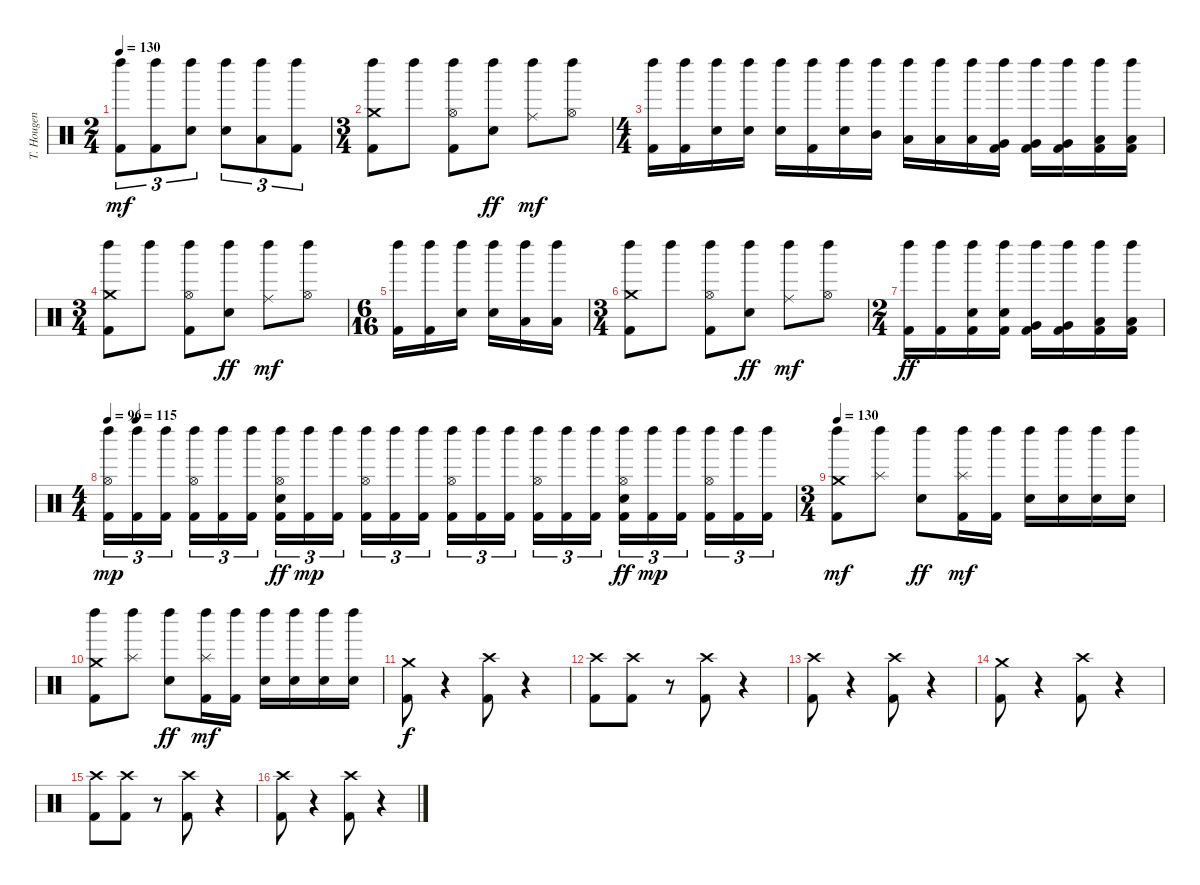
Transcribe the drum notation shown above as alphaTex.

\track ("T. Hougen - Drums" "T. Hougen ") {instrument percussion}
\staff {score}
\articulation defaults
\ts (2 4)
\tempo 130
\clef neutral
\ks c
("Left Maraca (hit)" "Kick (hit) 2").8{tu (3 2) dy mf} ("Left Maraca (hit)" "Kick (hit) 2").8{tu (3 2)} ("Left Maraca (hit)" "Electric Snare (hit)").8{tu (3 2)} ("Left Maraca (hit)" "Electric Snare (hit)").8{tu (3 2)} ("Left Maraca (hit)" "Low Tom (hit)").8{tu (3 2)} ("Left Maraca (hit)" "Kick (hit) 2").8{tu (3 2)} |
\ts (3 4)
("Left Maraca (hit)" "Crash medium (hit)" "Kick (hit) 2").8 "Left Maraca (hit)".8 ("Left Maraca (hit)" "Hi-Hat (open)" "Kick (hit) 2").8 ("Left Maraca (hit)" "Electric Snare (hit)").8{dy ff} ("Left Maraca (hit)" "Ride (middle)").8{dy mf} ("Left Maraca (hit)" "Hi-Hat (open)").8 |
\ts (4 4)
("Left Maraca (hit)" "Kick (hit) 2").16 ("Left Maraca (hit)" "Kick (hit) 2").16 ("Left Maraca (hit)" "Electric Snare (hit)").16 ("Left Maraca (hit)" "Electric Snare (hit)").16 ("Left Maraca (hit)" "Electric Snare (hit)").16 ("Left Maraca (hit)" "Kick (hit) 2").16 ("Left Maraca (hit)" "Electric Snare (hit)").16 ("Left Maraca (hit)" "Mid Tom (hit)").16 ("Left Maraca (hit)" "Low Tom (hit)").16 ("Left Maraca (hit)" "Low Tom (hit)").16 ("Left Maraca (hit)" "Low Tom (hit)").16 ("Left Maraca (hit)" "Very Low Tom (hit)" "Kick (hit) 2").16 ("Left Maraca (hit)" "Very Low Tom (hit)" "Kick (hit) 2").16 ("Left Maraca (hit)" "Very Low Tom (hit)" "Kick (hit) 2").16 ("Left Maraca (hit)" "Low Floor Tom (hit)" "Kick (hit) 2").16 ("Left Maraca (hit)" "Low Floor Tom (hit)" "Kick (hit) 2").16 |
\ts (3 4)
("Left Maraca (hit)" "Crash medium (hit)" "Kick (hit) 2").8 "Left Maraca (hit)".8 ("Left Maraca (hit)" "Hi-Hat (open)" "Kick (hit) 2").8 ("Left Maraca (hit)" "Electric Snare (hit)").8{dy ff} ("Left Maraca (hit)" "Ride (middle)").8{dy mf} ("Left Maraca (hit)" "Hi-Hat (open)").8 |
\ts (6 16)
("Left Maraca (hit)" "Kick (hit) 2").16 ("Left Maraca (hit)" "Kick (hit) 2").16 ("Left Maraca (hit)" "Electric Snare (hit)").16 ("Left Maraca (hit)" "Electric Snare (hit)").16 ("Left Maraca (hit)" "Low Tom (hit)").16 ("Left Maraca (hit)" "Low Tom (hit)").16 |
\ts (3 4)
("Left Maraca (hit)" "Crash medium (hit)" "Kick (hit) 2").8 "Left Maraca (hit)".8 ("Left Maraca (hit)" "Hi-Hat (open)" "Kick (hit) 2").8 ("Left Maraca (hit)" "Electric Snare (hit)").8{dy ff} ("Left Maraca (hit)" "Ride (middle)").8{dy mf} ("Left Maraca (hit)" "Hi-Hat (open)").8 |
\ts (2 4)
("Left Maraca (hit)" "Kick (hit) 2").16{dy ff} ("Left Maraca (hit)" "Kick (hit) 2").16 ("Left Maraca (hit)" "Electric Snare (hit)" "Kick (hit) 2").16 ("Left Maraca (hit)" "Electric Snare (hit)" "Kick (hit) 2").16 ("Left Maraca (hit)" "Very Low Tom (hit)" "Kick (hit) 2").16 ("Left Maraca (hit)" "Very Low Tom (hit)" "Kick (hit) 2").16 ("Left Maraca (hit)" "Low Floor Tom (hit)" "Kick (hit) 2").16 ("Left Maraca (hit)" "Low Floor Tom (hit)" "Kick (hit) 2").16 |
\ts (4 4)
\tempo 96
\tempo (115 0.041666666666666664)
("Left Maraca (hit)" "Hi-Hat (open)" "Kick (hit) 2").16{tu (3 2) dy mp} ("Left Maraca (hit)" "Kick (hit) 2").16{tu (3 2)} ("Left Maraca (hit)" "Kick (hit) 2").16{tu (3 2)} ("Left Maraca (hit)" "Hi-Hat (open)" "Kick (hit) 2").16{tu (3 2)} ("Left Maraca (hit)" "Kick (hit) 2").16{tu (3 2)} ("Left Maraca (hit)" "Kick (hit) 2").16{tu (3 2)} ("Left Maraca (hit)" "Hi-Hat (open)" "Electric Snare (hit)" "Kick (hit) 2").16{tu (3 2) dy ff} ("Left Maraca (hit)" "Kick (hit) 2").16{tu (3 2) dy mp} ("Left Maraca (hit)" "Kick (hit) 2").16{tu (3 2)} ("Left Maraca (hit)" "Hi-Hat (open)" "Kick (hit) 2").16{tu (3 2)} ("Left Maraca (hit)" "Kick (hit) 2").16{tu (3 2)} ("Left Maraca (hit)" "Kick (hit) 2").16{tu (3 2)} ("Left Maraca (hit)" "Hi-Hat (open)" "Kick (hit) 2").16{tu (3 2)} ("Left Maraca (hit)" "Kick (hit) 2").16{tu (3 2)} ("Left Maraca (hit)" "Kick (hit) 2").16{tu (3 2)} ("Left Maraca (hit)" "Hi-Hat (open)" "Kick (hit) 2").16{tu (3 2)} ("Left Maraca (hit)" "Kick (hit) 2").16{tu (3 2)} ("Left Maraca (hit)" "Kick (hit) 2").16{tu (3 2)} ("Left Maraca (hit)" "Hi-Hat (open)" "Electric Snare (hit)" "Kick (hit) 2").16{tu (3 2) dy ff} ("Left Maraca (hit)" "Kick (hit) 2").16{tu (3 2) dy mp} ("Left Maraca (hit)" "Kick (hit) 2").16{tu (3 2)} ("Left Maraca (hit)" "Hi-Hat (open)" "Kick (hit) 2").16{tu (3 2)} ("Left Maraca (hit)" "Kick (hit) 2").16{tu (3 2)} ("Left Maraca (hit)" "Kick (hit) 2").16{tu (3 2)} |
\ts (3 4)
\tempo 130
("Left Maraca (hit)" "Crash medium (hit)" "Kick (hit) 2").8{dy mf} ("Left Maraca (hit)" "Splash (hit)").8 ("Left Maraca (hit)" "Electric Snare (hit)").8{dy ff} ("Left Maraca (hit)" "Splash (hit)" "Kick (hit) 2").16{dy mf} ("Left Maraca (hit)" "Kick (hit) 2").16 ("Left Maraca (hit)" "Electric Snare (hit)").16 ("Left Maraca (hit)" "Electric Snare (hit)").16 ("Left Maraca (hit)" "Electric Snare (hit)").16 ("Left Maraca (hit)" "Electric Snare (hit)").16 |
("Left Maraca (hit)" "Crash medium (hit)" "Kick (hit) 2").8 ("Left Maraca (hit)" "Splash (hit)").8 ("Left Maraca (hit)" "Electric Snare (hit)").8{dy ff} ("Left Maraca (hit)" "Splash (hit)" "Kick (hit) 2").16{dy mf} ("Left Maraca (hit)" "Kick (hit) 2").16 ("Left Maraca (hit)" "Electric Snare (hit)").16 ("Left Maraca (hit)" "Electric Snare (hit)").16 ("Left Maraca (hit)" "Electric Snare (hit)").16 ("Left Maraca (hit)" "Electric Snare (hit)").16 |
("Crash medium (hit)" "Kick (hit) 2").8{dy f} r.4 ("Crash high (hit)" "Kick (hit) 2").8 r.4 |
("Crash high (hit)" "Kick (hit) 2").8 ("Crash high (hit)" "Kick (hit) 2").8 r.8 ("Crash high (hit)" "Kick (hit) 2").8 r.4 |
("Crash high (hit)" "Kick (hit) 2").8 r.4 ("Crash high (hit)" "Kick (hit) 2").8 r.4 |
("Crash medium (hit)" "Kick (hit) 2").8 r.4 ("Crash high (hit)" "Kick (hit) 2").8 r.4 |
("Crash high (hit)" "Kick (hit) 2").8 ("Crash high (hit)" "Kick (hit) 2").8 r.8 ("Crash high (hit)" "Kick (hit) 2").8 r.4 |
("Crash high (hit)" "Kick (hit) 2").8 r.4 ("Crash high (hit)" "Kick (hit) 2").8 r.4
